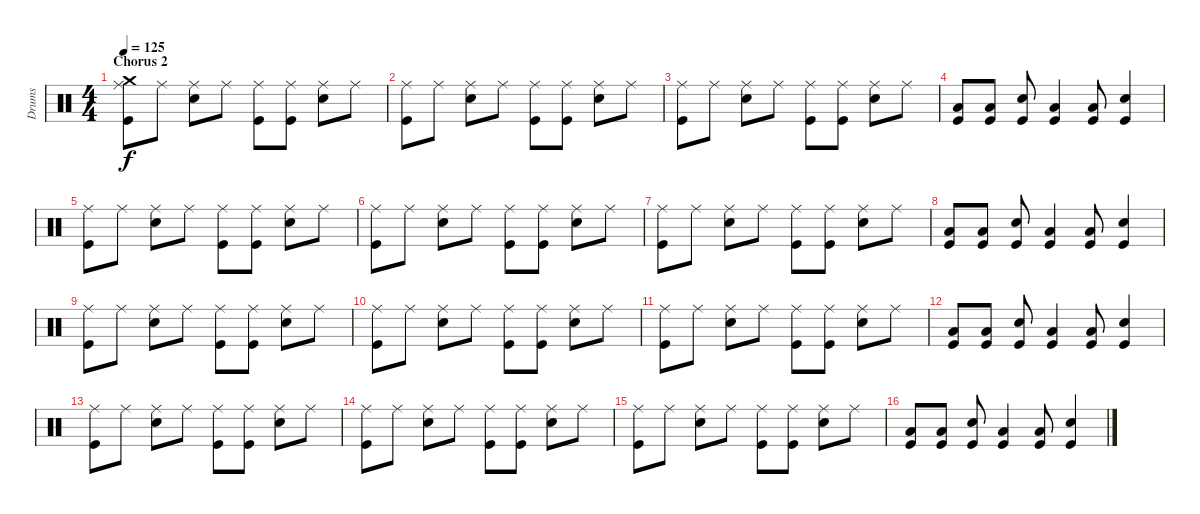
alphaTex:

\track ("Drums" "Drums") {instrument percussion}
\staff {score}
\articulation defaults
\ts (4 4)
\section ("" "Chorus 2")
\tempo 125
\clef neutral
\ks c
("Crash medium (hit)" "Ride (middle)" "Kick (hit)").8{dy f} "Ride (middle)".8 ("Ride (middle)" "Electric Snare (hit)").8 "Ride (middle)".8 ("Ride (middle)" "Kick (hit)").8 ("Ride (middle)" "Kick (hit)").8 ("Ride (middle)" "Electric Snare (hit)").8 "Ride (middle)".8 |
("Ride (middle)" "Kick (hit)").8 "Ride (middle)".8 ("Ride (middle)" "Electric Snare (hit)").8 "Ride (middle)".8 ("Ride (middle)" "Kick (hit)").8 ("Ride (middle)" "Kick (hit)").8 ("Ride (middle)" "Electric Snare (hit)").8 "Ride (middle)".8 |
("Ride (middle)" "Kick (hit)").8 "Ride (middle)".8 ("Ride (middle)" "Electric Snare (hit)").8 "Ride (middle)".8 ("Ride (middle)" "Kick (hit)").8 ("Ride (middle)" "Kick (hit)").8 ("Ride (middle)" "Electric Snare (hit)").8 "Ride (middle)".8 |
("Low Floor Tom (hit)" "Kick (hit)").8 ("Low Floor Tom (hit)" "Kick (hit)").8 ("Electric Snare (hit)" "Kick (hit)").8 ("Low Floor Tom (hit)" "Kick (hit)").4 ("Low Floor Tom (hit)" "Kick (hit)").8 ("Electric Snare (hit)" "Kick (hit)").4 |
("Ride (middle)" "Kick (hit)").8 "Ride (middle)".8 ("Ride (middle)" "Electric Snare (hit)").8 "Ride (middle)".8 ("Ride (middle)" "Kick (hit)").8 ("Ride (middle)" "Kick (hit)").8 ("Ride (middle)" "Electric Snare (hit)").8 "Ride (middle)".8 |
("Ride (middle)" "Kick (hit)").8 "Ride (middle)".8 ("Ride (middle)" "Electric Snare (hit)").8 "Ride (middle)".8 ("Ride (middle)" "Kick (hit)").8 ("Ride (middle)" "Kick (hit)").8 ("Ride (middle)" "Electric Snare (hit)").8 "Ride (middle)".8 |
("Ride (middle)" "Kick (hit)").8 "Ride (middle)".8 ("Ride (middle)" "Electric Snare (hit)").8 "Ride (middle)".8 ("Ride (middle)" "Kick (hit)").8 ("Ride (middle)" "Kick (hit)").8 ("Ride (middle)" "Electric Snare (hit)").8 "Ride (middle)".8 |
("Low Floor Tom (hit)" "Kick (hit)").8 ("Low Floor Tom (hit)" "Kick (hit)").8 ("Electric Snare (hit)" "Kick (hit)").8 ("Low Floor Tom (hit)" "Kick (hit)").4 ("Low Floor Tom (hit)" "Kick (hit)").8 ("Electric Snare (hit)" "Kick (hit)").4 |
("Ride (middle)" "Kick (hit)").8 "Ride (middle)".8 ("Ride (middle)" "Electric Snare (hit)").8 "Ride (middle)".8 ("Ride (middle)" "Kick (hit)").8 ("Ride (middle)" "Kick (hit)").8 ("Ride (middle)" "Electric Snare (hit)").8 "Ride (middle)".8 |
("Ride (middle)" "Kick (hit)").8 "Ride (middle)".8 ("Ride (middle)" "Electric Snare (hit)").8 "Ride (middle)".8 ("Ride (middle)" "Kick (hit)").8 ("Ride (middle)" "Kick (hit)").8 ("Ride (middle)" "Electric Snare (hit)").8 "Ride (middle)".8 |
("Ride (middle)" "Kick (hit)").8 "Ride (middle)".8 ("Ride (middle)" "Electric Snare (hit)").8 "Ride (middle)".8 ("Ride (middle)" "Kick (hit)").8 ("Ride (middle)" "Kick (hit)").8 ("Ride (middle)" "Electric Snare (hit)").8 "Ride (middle)".8 |
("Low Floor Tom (hit)" "Kick (hit)").8 ("Low Floor Tom (hit)" "Kick (hit)").8 ("Electric Snare (hit)" "Kick (hit)").8 ("Low Floor Tom (hit)" "Kick (hit)").4 ("Low Floor Tom (hit)" "Kick (hit)").8 ("Electric Snare (hit)" "Kick (hit)").4 |
("Ride (middle)" "Kick (hit)").8 "Ride (middle)".8 ("Ride (middle)" "Electric Snare (hit)").8 "Ride (middle)".8 ("Ride (middle)" "Kick (hit)").8 ("Ride (middle)" "Kick (hit)").8 ("Ride (middle)" "Electric Snare (hit)").8 "Ride (middle)".8 |
("Ride (middle)" "Kick (hit)").8 "Ride (middle)".8 ("Ride (middle)" "Electric Snare (hit)").8 "Ride (middle)".8 ("Ride (middle)" "Kick (hit)").8 ("Ride (middle)" "Kick (hit)").8 ("Ride (middle)" "Electric Snare (hit)").8 "Ride (middle)".8 |
("Ride (middle)" "Kick (hit)").8 "Ride (middle)".8 ("Ride (middle)" "Electric Snare (hit)").8 "Ride (middle)".8 ("Ride (middle)" "Kick (hit)").8 ("Ride (middle)" "Kick (hit)").8 ("Ride (middle)" "Electric Snare (hit)").8 "Ride (middle)".8 |
("Low Floor Tom (hit)" "Kick (hit)").8 ("Low Floor Tom (hit)" "Kick (hit)").8 ("Electric Snare (hit)" "Kick (hit)").8 ("Low Floor Tom (hit)" "Kick (hit)").4 ("Low Floor Tom (hit)" "Kick (hit)").8 ("Electric Snare (hit)" "Kick (hit)").4
